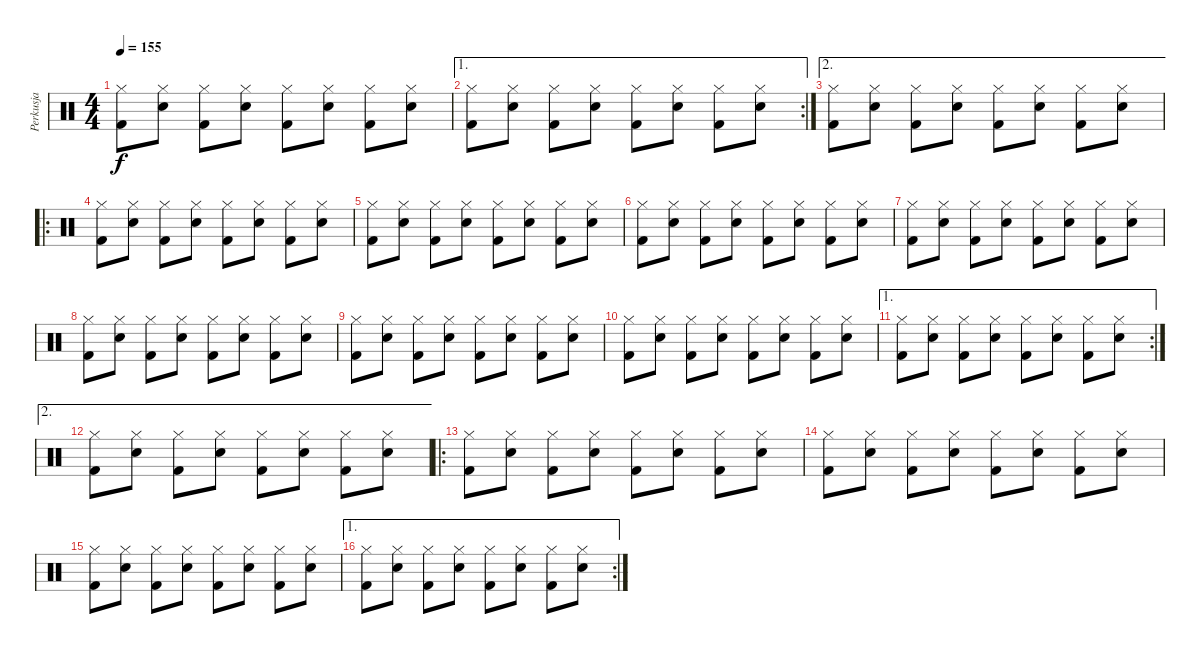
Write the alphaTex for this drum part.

\track ("Perkusja" "Perkusja") {instrument percussion}
\staff {score}
\articulation defaults
\ts (4 4)
\tempo 155
\clef neutral
\ks c
("Kick (hit) 2" "Hi-Hat (closed)").8{dy f} ("Snare (hit) 2" "Hi-Hat (closed)").8 ("Kick (hit) 2" "Hi-Hat (closed)").8 ("Snare (hit) 2" "Hi-Hat (closed)").8 ("Kick (hit) 2" "Hi-Hat (closed)").8 ("Snare (hit) 2" "Hi-Hat (closed)").8 ("Kick (hit) 2" "Hi-Hat (closed)").8 ("Snare (hit) 2" "Hi-Hat (closed)").8 |
\ae 1
\rc 2
("Kick (hit) 2" "Hi-Hat (closed)").8 ("Snare (hit) 2" "Hi-Hat (closed)").8 ("Kick (hit) 2" "Hi-Hat (closed)").8 ("Snare (hit) 2" "Hi-Hat (closed)").8 ("Kick (hit) 2" "Hi-Hat (closed)").8 ("Snare (hit) 2" "Hi-Hat (closed)").8 ("Kick (hit) 2" "Hi-Hat (closed)").8 ("Snare (hit) 2" "Hi-Hat (closed)").8 |
\ae 2
("Kick (hit) 2" "Hi-Hat (closed)").8 ("Snare (hit) 2" "Hi-Hat (closed)").8 ("Kick (hit) 2" "Hi-Hat (closed)").8 ("Snare (hit) 2" "Hi-Hat (closed)").8 ("Kick (hit) 2" "Hi-Hat (closed)").8 ("Snare (hit) 2" "Hi-Hat (closed)").8 ("Kick (hit) 2" "Hi-Hat (closed)").8 ("Snare (hit) 2" "Hi-Hat (closed)").8 |
\ro
("Kick (hit) 2" "Hi-Hat (closed)").8 ("Snare (hit) 2" "Hi-Hat (closed)").8 ("Kick (hit) 2" "Hi-Hat (closed)").8 ("Snare (hit) 2" "Hi-Hat (closed)").8 ("Kick (hit) 2" "Hi-Hat (closed)").8 ("Snare (hit) 2" "Hi-Hat (closed)").8 ("Kick (hit) 2" "Hi-Hat (closed)").8 ("Snare (hit) 2" "Hi-Hat (closed)").8 |
("Kick (hit) 2" "Hi-Hat (closed)").8 ("Snare (hit) 2" "Hi-Hat (closed)").8 ("Kick (hit) 2" "Hi-Hat (closed)").8 ("Snare (hit) 2" "Hi-Hat (closed)").8 ("Kick (hit) 2" "Hi-Hat (closed)").8 ("Snare (hit) 2" "Hi-Hat (closed)").8 ("Kick (hit) 2" "Hi-Hat (closed)").8 ("Snare (hit) 2" "Hi-Hat (closed)").8 |
("Kick (hit) 2" "Hi-Hat (closed)").8 ("Snare (hit) 2" "Hi-Hat (closed)").8 ("Kick (hit) 2" "Hi-Hat (closed)").8 ("Snare (hit) 2" "Hi-Hat (closed)").8 ("Kick (hit) 2" "Hi-Hat (closed)").8 ("Snare (hit) 2" "Hi-Hat (closed)").8 ("Kick (hit) 2" "Hi-Hat (closed)").8 ("Snare (hit) 2" "Hi-Hat (closed)").8 |
("Kick (hit) 2" "Hi-Hat (closed)").8 ("Snare (hit) 2" "Hi-Hat (closed)").8 ("Kick (hit) 2" "Hi-Hat (closed)").8 ("Snare (hit) 2" "Hi-Hat (closed)").8 ("Kick (hit) 2" "Hi-Hat (closed)").8 ("Snare (hit) 2" "Hi-Hat (closed)").8 ("Kick (hit) 2" "Hi-Hat (closed)").8 ("Snare (hit) 2" "Hi-Hat (closed)").8 |
("Kick (hit) 2" "Hi-Hat (closed)").8 ("Snare (hit) 2" "Hi-Hat (closed)").8 ("Kick (hit) 2" "Hi-Hat (closed)").8 ("Snare (hit) 2" "Hi-Hat (closed)").8 ("Kick (hit) 2" "Hi-Hat (closed)").8 ("Snare (hit) 2" "Hi-Hat (closed)").8 ("Kick (hit) 2" "Hi-Hat (closed)").8 ("Snare (hit) 2" "Hi-Hat (closed)").8 |
("Kick (hit) 2" "Hi-Hat (closed)").8 ("Snare (hit) 2" "Hi-Hat (closed)").8 ("Kick (hit) 2" "Hi-Hat (closed)").8 ("Snare (hit) 2" "Hi-Hat (closed)").8 ("Kick (hit) 2" "Hi-Hat (closed)").8 ("Snare (hit) 2" "Hi-Hat (closed)").8 ("Kick (hit) 2" "Hi-Hat (closed)").8 ("Snare (hit) 2" "Hi-Hat (closed)").8 |
("Kick (hit) 2" "Hi-Hat (closed)").8 ("Snare (hit) 2" "Hi-Hat (closed)").8 ("Kick (hit) 2" "Hi-Hat (closed)").8 ("Snare (hit) 2" "Hi-Hat (closed)").8 ("Kick (hit) 2" "Hi-Hat (closed)").8 ("Snare (hit) 2" "Hi-Hat (closed)").8 ("Kick (hit) 2" "Hi-Hat (closed)").8 ("Snare (hit) 2" "Hi-Hat (closed)").8 |
\ae 1
\rc 2
("Kick (hit) 2" "Hi-Hat (closed)").8 ("Snare (hit) 2" "Hi-Hat (closed)").8 ("Kick (hit) 2" "Hi-Hat (closed)").8 ("Snare (hit) 2" "Hi-Hat (closed)").8 ("Kick (hit) 2" "Hi-Hat (closed)").8 ("Snare (hit) 2" "Hi-Hat (closed)").8 ("Kick (hit) 2" "Hi-Hat (closed)").8 ("Snare (hit) 2" "Hi-Hat (closed)").8 |
\ae 2
("Kick (hit) 2" "Hi-Hat (closed)").8 ("Snare (hit) 2" "Hi-Hat (closed)").8 ("Kick (hit) 2" "Hi-Hat (closed)").8 ("Snare (hit) 2" "Hi-Hat (closed)").8 ("Kick (hit) 2" "Hi-Hat (closed)").8 ("Snare (hit) 2" "Hi-Hat (closed)").8 ("Kick (hit) 2" "Hi-Hat (closed)").8 ("Snare (hit) 2" "Hi-Hat (closed)").8 |
\ro
("Kick (hit) 2" "Hi-Hat (closed)").8 ("Snare (hit) 2" "Hi-Hat (closed)").8 ("Kick (hit) 2" "Hi-Hat (closed)").8 ("Snare (hit) 2" "Hi-Hat (closed)").8 ("Kick (hit) 2" "Hi-Hat (closed)").8 ("Snare (hit) 2" "Hi-Hat (closed)").8 ("Kick (hit) 2" "Hi-Hat (closed)").8 ("Snare (hit) 2" "Hi-Hat (closed)").8 |
("Kick (hit) 2" "Hi-Hat (closed)").8 ("Snare (hit) 2" "Hi-Hat (closed)").8 ("Kick (hit) 2" "Hi-Hat (closed)").8 ("Snare (hit) 2" "Hi-Hat (closed)").8 ("Kick (hit) 2" "Hi-Hat (closed)").8 ("Snare (hit) 2" "Hi-Hat (closed)").8 ("Kick (hit) 2" "Hi-Hat (closed)").8 ("Snare (hit) 2" "Hi-Hat (closed)").8 |
("Kick (hit) 2" "Hi-Hat (closed)").8 ("Snare (hit) 2" "Hi-Hat (closed)").8 ("Kick (hit) 2" "Hi-Hat (closed)").8 ("Snare (hit) 2" "Hi-Hat (closed)").8 ("Kick (hit) 2" "Hi-Hat (closed)").8 ("Snare (hit) 2" "Hi-Hat (closed)").8 ("Kick (hit) 2" "Hi-Hat (closed)").8 ("Snare (hit) 2" "Hi-Hat (closed)").8 |
\ae 1
\rc 2
("Kick (hit) 2" "Hi-Hat (closed)").8 ("Snare (hit) 2" "Hi-Hat (closed)").8 ("Kick (hit) 2" "Hi-Hat (closed)").8 ("Snare (hit) 2" "Hi-Hat (closed)").8 ("Kick (hit) 2" "Hi-Hat (closed)").8 ("Snare (hit) 2" "Hi-Hat (closed)").8 ("Kick (hit) 2" "Hi-Hat (closed)").8 ("Snare (hit) 2" "Hi-Hat (closed)").8
